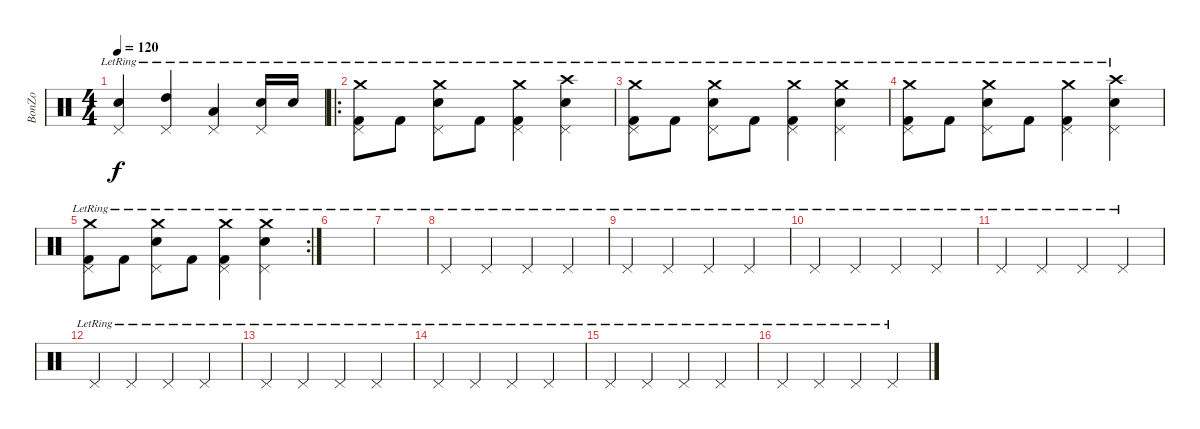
\track ("BonZo" "BonZo") {instrument percussion}
\staff {score}
\articulation defaults
\ts (4 4)
\tempo 120
\clef neutral
\ks c
("Electric Snare (hit)"{lr} "Pedal Hi-Hat (hit)"{lr}).4{dy f} ("High Tom (hit)"{lr} "Pedal Hi-Hat (hit)"{lr}).4 ("Low Tom (hit)"{lr} "Pedal Hi-Hat (hit)"{lr}).4 ("Electric Snare (hit)"{lr} "Pedal Hi-Hat (hit)"{lr}).16 "Electric Snare (hit)"{lr}.16 |
\ro
("Kick (hit) 2"{lr} "Crash medium (hit)"{lr} "Pedal Hi-Hat (hit)"{lr}).8 "Kick (hit) 2"{lr}.8 ("Electric Snare (hit)"{lr} "Crash medium (hit)"{lr} "Pedal Hi-Hat (hit)"{lr}).8 "Kick (hit) 2"{lr}.8 ("Kick (hit) 2"{lr} "Crash medium (hit)"{lr} "Pedal Hi-Hat (hit)"{lr}).4 ("Electric Snare (hit)"{lr} "Crash high (hit)"{lr} "Pedal Hi-Hat (hit)"{lr}).4 |
("Kick (hit) 2"{lr} "Crash medium (hit)"{lr} "Pedal Hi-Hat (hit)"{lr}).8 "Kick (hit) 2"{lr}.8 ("Electric Snare (hit)"{lr} "Crash medium (hit)"{lr} "Pedal Hi-Hat (hit)"{lr}).8 "Kick (hit) 2"{lr}.8 ("Kick (hit) 2"{lr} "Crash medium (hit)"{lr} "Pedal Hi-Hat (hit)"{lr}).4 ("Electric Snare (hit)"{lr} "Crash medium (hit)"{lr} "Pedal Hi-Hat (hit)"{lr}).4 |
("Kick (hit) 2"{lr} "Crash medium (hit)"{lr} "Pedal Hi-Hat (hit)"{lr}).8 "Kick (hit) 2"{lr}.8 ("Electric Snare (hit)"{lr} "Crash medium (hit)"{lr} "Pedal Hi-Hat (hit)"{lr}).8 "Kick (hit) 2"{lr}.8 ("Kick (hit) 2"{lr} "Crash medium (hit)"{lr} "Pedal Hi-Hat (hit)"{lr}).4 ("Electric Snare (hit)"{lr} "Crash high (hit)"{lr} "Pedal Hi-Hat (hit)"{lr}).4 |
\rc 2
("Kick (hit) 2"{lr} "Crash medium (hit)"{lr} "Pedal Hi-Hat (hit)"{lr}).8 "Kick (hit) 2"{lr}.8 ("Electric Snare (hit)"{lr} "Crash medium (hit)"{lr} "Pedal Hi-Hat (hit)"{lr}).8 "Kick (hit) 2"{lr}.8 ("Kick (hit) 2"{lr} "Crash medium (hit)"{lr} "Pedal Hi-Hat (hit)"{lr}).4 ("Electric Snare (hit)"{lr} "Crash medium (hit)"{lr} "Pedal Hi-Hat (hit)"{lr}).4 |
|
|
"Pedal Hi-Hat (hit)"{lr}.4 "Pedal Hi-Hat (hit)"{lr}.4 "Pedal Hi-Hat (hit)"{lr}.4 "Pedal Hi-Hat (hit)"{lr}.4 |
"Pedal Hi-Hat (hit)"{lr}.4 "Pedal Hi-Hat (hit)"{lr}.4 "Pedal Hi-Hat (hit)"{lr}.4 "Pedal Hi-Hat (hit)"{lr}.4 |
"Pedal Hi-Hat (hit)"{lr}.4 "Pedal Hi-Hat (hit)"{lr}.4 "Pedal Hi-Hat (hit)"{lr}.4 "Pedal Hi-Hat (hit)"{lr}.4 |
"Pedal Hi-Hat (hit)"{lr}.4 "Pedal Hi-Hat (hit)"{lr}.4 "Pedal Hi-Hat (hit)"{lr}.4 "Pedal Hi-Hat (hit)"{lr}.4 |
"Pedal Hi-Hat (hit)"{lr}.4 "Pedal Hi-Hat (hit)"{lr}.4 "Pedal Hi-Hat (hit)"{lr}.4 "Pedal Hi-Hat (hit)"{lr}.4 |
"Pedal Hi-Hat (hit)"{lr}.4 "Pedal Hi-Hat (hit)"{lr}.4 "Pedal Hi-Hat (hit)"{lr}.4 "Pedal Hi-Hat (hit)"{lr}.4 |
"Pedal Hi-Hat (hit)"{lr}.4 "Pedal Hi-Hat (hit)"{lr}.4 "Pedal Hi-Hat (hit)"{lr}.4 "Pedal Hi-Hat (hit)"{lr}.4 |
"Pedal Hi-Hat (hit)"{lr}.4 "Pedal Hi-Hat (hit)"{lr}.4 "Pedal Hi-Hat (hit)"{lr}.4 "Pedal Hi-Hat (hit)"{lr}.4 |
"Pedal Hi-Hat (hit)"{lr}.4 "Pedal Hi-Hat (hit)"{lr}.4 "Pedal Hi-Hat (hit)"{lr}.4 "Pedal Hi-Hat (hit)"{lr}.4
